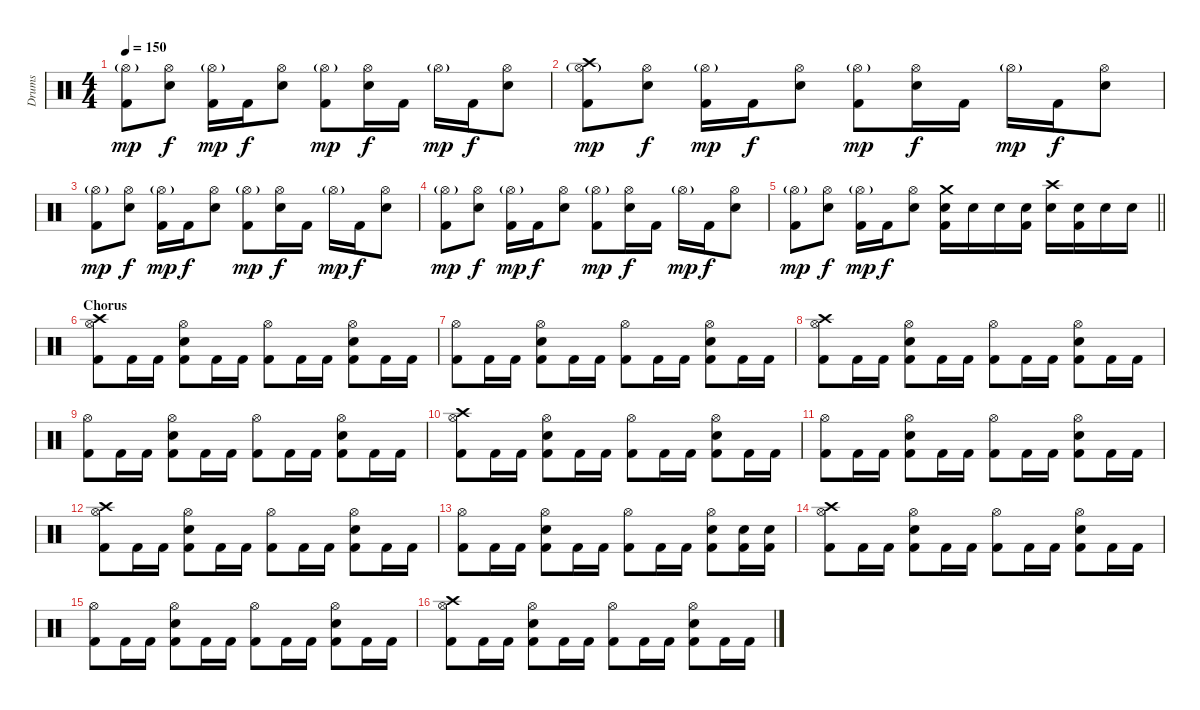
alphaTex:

\track ("Drums" "Drums") {instrument percussion}
\staff {score}
\articulation defaults
\ts (4 4)
\tempo 150
\clef neutral
\ks c
("Hi-Hat (open)"{g} "Kick (hit) 2").8{dy mp} ("Hi-Hat (open)" "Snare (hit) 2").8{dy f} ("Hi-Hat (open)"{g} "Kick (hit) 2").16{dy mp} "Kick (hit) 2".16{dy f} ("Hi-Hat (open)" "Snare (hit) 2").8 ("Hi-Hat (open)"{g} "Kick (hit) 2").8{dy mp} ("Hi-Hat (open)" "Snare (hit) 2").16{dy f} "Kick (hit) 2".16 "Hi-Hat (open)"{g}.16{dy mp} "Kick (hit) 2".16{dy f} ("Hi-Hat (open)" "Snare (hit) 2").8 |
("Crash high (hit)" "Hi-Hat (open)"{g} "Kick (hit) 2").8{dy mp} ("Hi-Hat (open)" "Snare (hit) 2").8{dy f} ("Hi-Hat (open)"{g} "Kick (hit) 2").16{dy mp} "Kick (hit) 2".16{dy f} ("Hi-Hat (open)" "Snare (hit) 2").8 ("Hi-Hat (open)"{g} "Kick (hit) 2").8{dy mp} ("Hi-Hat (open)" "Snare (hit) 2").16{dy f} "Kick (hit) 2".16 "Hi-Hat (open)"{g}.16{dy mp} "Kick (hit) 2".16{dy f} ("Hi-Hat (open)" "Snare (hit) 2").8 |
("Hi-Hat (open)"{g} "Kick (hit) 2").8{dy mp} ("Hi-Hat (open)" "Snare (hit) 2").8{dy f} ("Hi-Hat (open)"{g} "Kick (hit) 2").16{dy mp} "Kick (hit) 2".16{dy f} ("Hi-Hat (open)" "Snare (hit) 2").8 ("Hi-Hat (open)"{g} "Kick (hit) 2").8{dy mp} ("Hi-Hat (open)" "Snare (hit) 2").16{dy f} "Kick (hit) 2".16 "Hi-Hat (open)"{g}.16{dy mp} "Kick (hit) 2".16{dy f} ("Hi-Hat (open)" "Snare (hit) 2").8 |
("Hi-Hat (open)"{g} "Kick (hit) 2").8{dy mp} ("Hi-Hat (open)" "Snare (hit) 2").8{dy f} ("Hi-Hat (open)"{g} "Kick (hit) 2").16{dy mp} "Kick (hit) 2".16{dy f} ("Hi-Hat (open)" "Snare (hit) 2").8 ("Hi-Hat (open)"{g} "Kick (hit) 2").8{dy mp} ("Hi-Hat (open)" "Snare (hit) 2").16{dy f} "Kick (hit) 2".16 "Hi-Hat (open)"{g}.16{dy mp} "Kick (hit) 2".16{dy f} ("Hi-Hat (open)" "Snare (hit) 2").8 |
\barLineRight lightlight
("Hi-Hat (open)"{g} "Kick (hit) 2").8{dy mp} ("Hi-Hat (open)" "Snare (hit) 2").8{dy f} ("Hi-Hat (open)"{g} "Kick (hit) 2").16{dy mp} "Kick (hit) 2".16{dy f} ("Hi-Hat (open)" "Snare (hit) 2").8 ("Crash medium (hit)" "Snare (hit) 2" "Kick (hit) 2").16 "Snare (hit) 2".16 "Snare (hit) 2".16 ("Snare (hit) 2" "Kick (hit) 2").16 ("Crash high (hit)" "Snare (hit) 2").16 ("Snare (hit) 2" "Kick (hit) 2").16 "Snare (hit) 2".16 "Snare (hit) 2".16 |
\section ("" "Chorus")
("Crash high (hit)" "Hi-Hat (open)" "Kick (hit) 2").8 "Kick (hit) 2".16 "Kick (hit) 2".16 ("Hi-Hat (open)" "Snare (hit) 2" "Kick (hit) 2").8 "Kick (hit) 2".16 "Kick (hit) 2".16 ("Hi-Hat (open)" "Kick (hit) 2").8 "Kick (hit) 2".16 "Kick (hit) 2".16 ("Hi-Hat (open)" "Snare (hit) 2" "Kick (hit) 2").8 "Kick (hit) 2".16 "Kick (hit) 2".16 |
("Hi-Hat (open)" "Kick (hit) 2").8 "Kick (hit) 2".16 "Kick (hit) 2".16 ("Hi-Hat (open)" "Snare (hit) 2" "Kick (hit) 2").8 "Kick (hit) 2".16 "Kick (hit) 2".16 ("Hi-Hat (open)" "Kick (hit) 2").8 "Kick (hit) 2".16 "Kick (hit) 2".16 ("Hi-Hat (open)" "Snare (hit) 2" "Kick (hit) 2").8 "Kick (hit) 2".16 "Kick (hit) 2".16 |
("Crash high (hit)" "Hi-Hat (open)" "Kick (hit) 2").8 "Kick (hit) 2".16 "Kick (hit) 2".16 ("Hi-Hat (open)" "Snare (hit) 2" "Kick (hit) 2").8 "Kick (hit) 2".16 "Kick (hit) 2".16 ("Hi-Hat (open)" "Kick (hit) 2").8 "Kick (hit) 2".16 "Kick (hit) 2".16 ("Hi-Hat (open)" "Snare (hit) 2" "Kick (hit) 2").8 "Kick (hit) 2".16 "Kick (hit) 2".16 |
("Hi-Hat (open)" "Kick (hit) 2").8 "Kick (hit) 2".16 "Kick (hit) 2".16 ("Hi-Hat (open)" "Snare (hit) 2" "Kick (hit) 2").8 "Kick (hit) 2".16 "Kick (hit) 2".16 ("Hi-Hat (open)" "Kick (hit) 2").8 "Kick (hit) 2".16 "Kick (hit) 2".16 ("Hi-Hat (open)" "Snare (hit) 2" "Kick (hit) 2").8 "Kick (hit) 2".16 "Kick (hit) 2".16 |
("Crash high (hit)" "Hi-Hat (open)" "Kick (hit) 2").8 "Kick (hit) 2".16 "Kick (hit) 2".16 ("Hi-Hat (open)" "Snare (hit) 2" "Kick (hit) 2").8 "Kick (hit) 2".16 "Kick (hit) 2".16 ("Hi-Hat (open)" "Kick (hit) 2").8 "Kick (hit) 2".16 "Kick (hit) 2".16 ("Hi-Hat (open)" "Snare (hit) 2" "Kick (hit) 2").8 "Kick (hit) 2".16 "Kick (hit) 2".16 |
("Hi-Hat (open)" "Kick (hit) 2").8 "Kick (hit) 2".16 "Kick (hit) 2".16 ("Hi-Hat (open)" "Snare (hit) 2" "Kick (hit) 2").8 "Kick (hit) 2".16 "Kick (hit) 2".16 ("Hi-Hat (open)" "Kick (hit) 2").8 "Kick (hit) 2".16 "Kick (hit) 2".16 ("Hi-Hat (open)" "Snare (hit) 2" "Kick (hit) 2").8 "Kick (hit) 2".16 "Kick (hit) 2".16 |
("Crash high (hit)" "Hi-Hat (open)" "Kick (hit) 2").8 "Kick (hit) 2".16 "Kick (hit) 2".16 ("Hi-Hat (open)" "Snare (hit) 2" "Kick (hit) 2").8 "Kick (hit) 2".16 "Kick (hit) 2".16 ("Hi-Hat (open)" "Kick (hit) 2").8 "Kick (hit) 2".16 "Kick (hit) 2".16 ("Hi-Hat (open)" "Snare (hit) 2" "Kick (hit) 2").8 "Kick (hit) 2".16 "Kick (hit) 2".16 |
("Hi-Hat (open)" "Kick (hit) 2").8 "Kick (hit) 2".16 "Kick (hit) 2".16 ("Hi-Hat (open)" "Snare (hit) 2" "Kick (hit) 2").8 "Kick (hit) 2".16 "Kick (hit) 2".16 ("Hi-Hat (open)" "Kick (hit) 2").8 "Kick (hit) 2".16 "Kick (hit) 2".16 ("Hi-Hat (open)" "Snare (hit) 2" "Kick (hit) 2").8 ("Snare (hit) 2" "Kick (hit) 2").16 ("Snare (hit) 2" "Kick (hit) 2").16 |
("Crash high (hit)" "Hi-Hat (open)" "Kick (hit) 2").8 "Kick (hit) 2".16 "Kick (hit) 2".16 ("Hi-Hat (open)" "Snare (hit) 2" "Kick (hit) 2").8 "Kick (hit) 2".16 "Kick (hit) 2".16 ("Hi-Hat (open)" "Kick (hit) 2").8 "Kick (hit) 2".16 "Kick (hit) 2".16 ("Hi-Hat (open)" "Snare (hit) 2" "Kick (hit) 2").8 "Kick (hit) 2".16 "Kick (hit) 2".16 |
("Hi-Hat (open)" "Kick (hit) 2").8 "Kick (hit) 2".16 "Kick (hit) 2".16 ("Hi-Hat (open)" "Snare (hit) 2" "Kick (hit) 2").8 "Kick (hit) 2".16 "Kick (hit) 2".16 ("Hi-Hat (open)" "Kick (hit) 2").8 "Kick (hit) 2".16 "Kick (hit) 2".16 ("Hi-Hat (open)" "Snare (hit) 2" "Kick (hit) 2").8 "Kick (hit) 2".16 "Kick (hit) 2".16 |
("Crash high (hit)" "Hi-Hat (open)" "Kick (hit) 2").8 "Kick (hit) 2".16 "Kick (hit) 2".16 ("Hi-Hat (open)" "Snare (hit) 2" "Kick (hit) 2").8 "Kick (hit) 2".16 "Kick (hit) 2".16 ("Hi-Hat (open)" "Kick (hit) 2").8 "Kick (hit) 2".16 "Kick (hit) 2".16 ("Hi-Hat (open)" "Snare (hit) 2" "Kick (hit) 2").8 "Kick (hit) 2".16 "Kick (hit) 2".16
